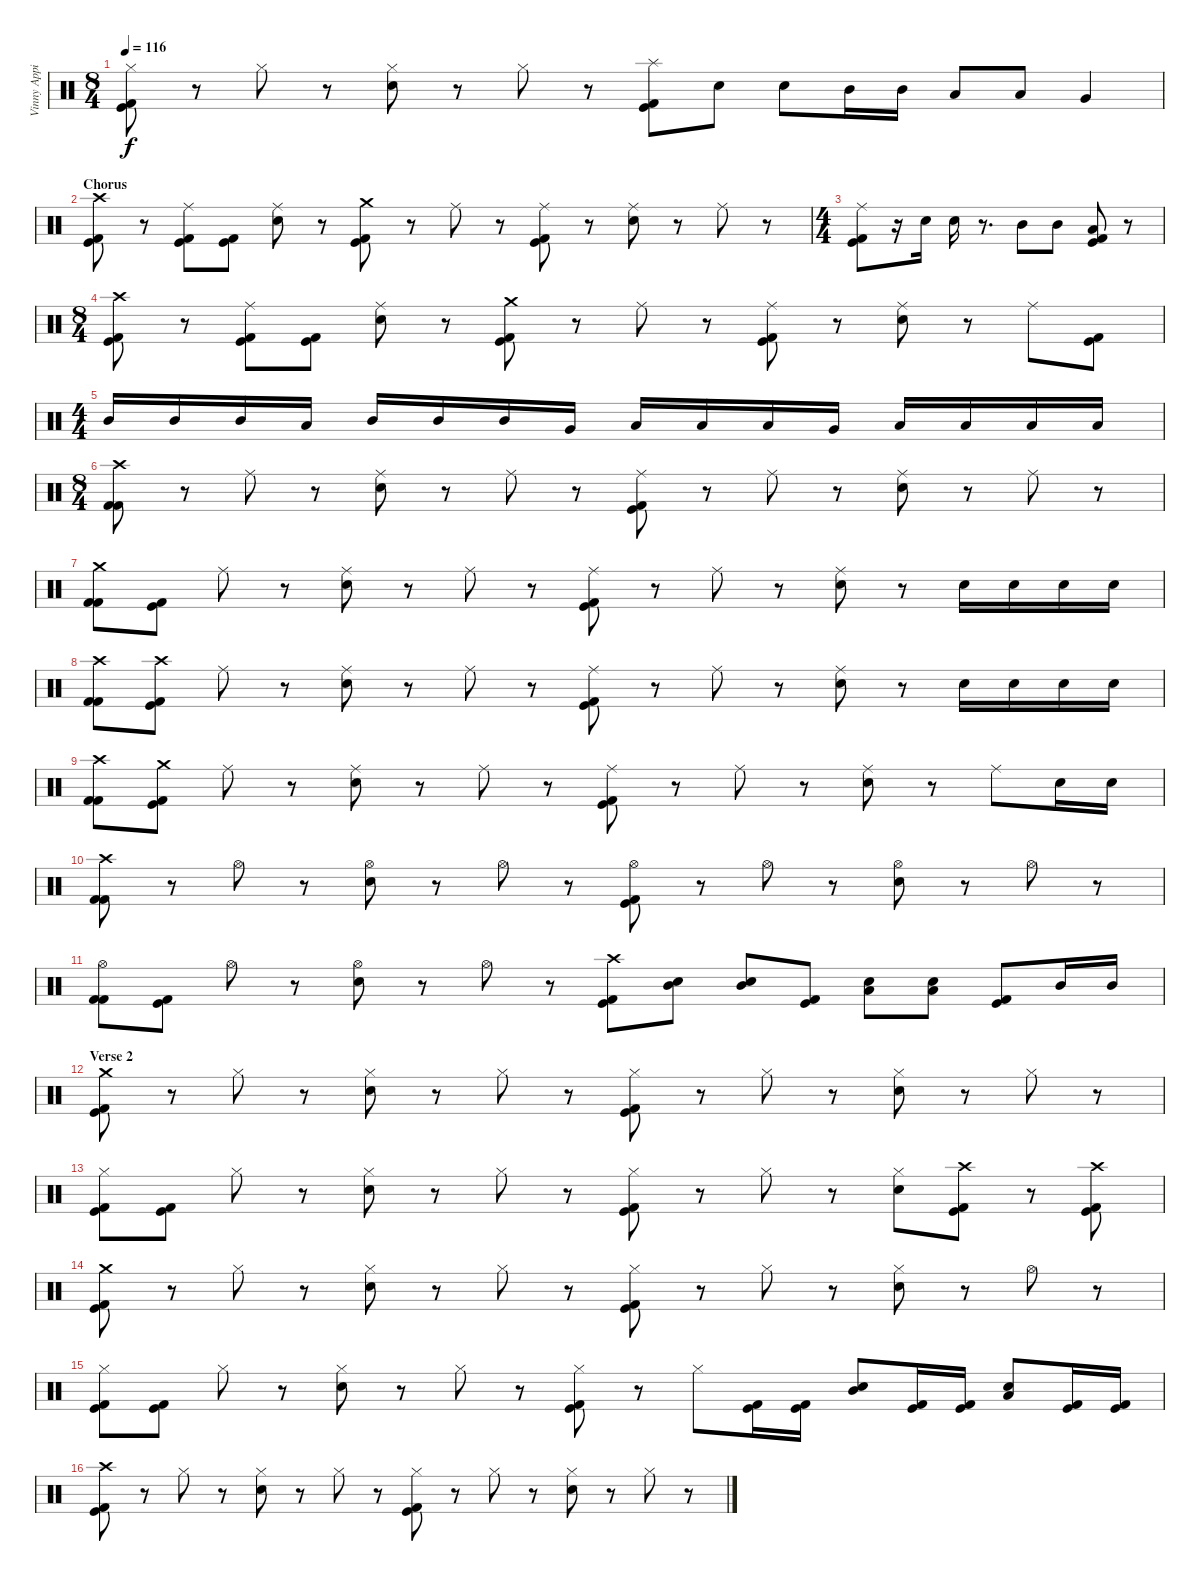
\track ("Vinny Appice" "Vinny Appi") {instrument percussion}
\staff {score}
\articulation defaults
\ts (8 4)
\tempo 116
\clef neutral
\ks c
("Hi-Hat (closed)" "Kick (hit)" "Kick (hit) 2").8{dy f} r.8 "Hi-Hat (closed)".8 r.8 ("Hi-Hat (closed)" "Snare (hit) 2").8 r.8 "Hi-Hat (closed)".8 r.8 ("Splash (hit)" "Kick (hit)" "Kick (hit) 2").8 "Snare (hit) 2".8 "Snare (hit) 2".8 "Mid Tom (hit)".16 "Mid Tom (hit)".16 "Low Tom (hit)".8 "Low Tom (hit)".8 "Very Low Tom (hit)".4 |
\section ("" "Chorus")
("Crash high (hit)" "Kick (hit)" "Kick (hit) 2").8 r.8 ("Ride (middle)" "Kick (hit)" "Kick (hit) 2").8 ("Kick (hit)" "Kick (hit) 2").8 ("Ride (middle)" "Snare (hit) 2").8 r.8 ("Crash medium (hit)" "Kick (hit)" "Kick (hit) 2").8 r.8 "Ride (middle)".8 r.8 ("Ride (middle)" "Kick (hit)" "Kick (hit) 2").8 r.8 ("Ride (middle)" "Snare (hit) 2").8 r.8 "Ride (middle)".8 r.8 |
\ts (4 4)
("Ride (middle)" "Kick (hit)" "Kick (hit) 2").8 r.16 "Snare (hit) 2".16 "Snare (hit) 2".16 r.8{d} "Mid Tom (hit)".8 "Mid Tom (hit)".8 ("Low Tom (hit)" "Kick (hit)" "Kick (hit) 2").8 r.8 |
\ts (8 4)
("Crash high (hit)" "Kick (hit)" "Kick (hit) 2").8 r.8 ("Ride (middle)" "Kick (hit)" "Kick (hit) 2").8 ("Kick (hit)" "Kick (hit) 2").8 ("Ride (middle)" "Snare (hit) 2").8 r.8 ("Crash medium (hit)" "Kick (hit)" "Kick (hit) 2").8 r.8 "Ride (middle)".8 r.8 ("Ride (middle)" "Kick (hit)" "Kick (hit) 2").8 r.8 ("Ride (middle)" "Snare (hit) 2").8 r.8 "Ride (middle)".8 ("Kick (hit)" "Kick (hit) 2").8 |
\ts (4 4)
"Mid Tom (hit)".16 "Mid Tom (hit)".16 "Mid Tom (hit)".16 "Low Tom (hit)".16 "Mid Tom (hit)".16 "Mid Tom (hit)".16 "Mid Tom (hit)".16 "Very Low Tom (hit)".16 "Low Tom (hit)".16 "Low Tom (hit)".16 "Low Tom (hit)".16 "Very Low Tom (hit)".16 "Low Tom (hit)".16 "Low Tom (hit)".16 "Low Tom (hit)".16 "Low Floor Tom (hit)".16 |
\ts (8 4)
("Crash high (hit)" "Kick (hit) 2" "Kick (hit) 2").8 r.8 "Ride (middle)".8 r.8 ("Ride (middle)" "Snare (hit) 2").8 r.8 "Ride (middle)".8 r.8 ("Ride (middle)" "Kick (hit)" "Kick (hit) 2").8 r.8 "Ride (middle)".8 r.8 ("Ride (middle)" "Snare (hit) 2").8 r.8 "Ride (middle)".8 r.8 |
("Crash medium (hit)" "Kick (hit) 2" "Kick (hit) 2").8 ("Kick (hit)" "Kick (hit) 2").8 "Ride (middle)".8 r.8 ("Ride (middle)" "Snare (hit) 2").8 r.8 "Ride (middle)".8 r.8 ("Ride (middle)" "Kick (hit)" "Kick (hit) 2").8 r.8 "Ride (middle)".8 r.8 ("Ride (middle)" "Snare (hit) 2").8 r.8 "Snare (hit) 2".16 "Snare (hit) 2".16 "Snare (hit) 2".16 "Snare (hit) 2".16 |
("Crash high (hit)" "Kick (hit) 2" "Kick (hit) 2").8 ("Crash high (hit)" "Kick (hit)" "Kick (hit) 2").8 "Ride (middle)".8 r.8 ("Ride (middle)" "Snare (hit) 2").8 r.8 "Ride (middle)".8 r.8 ("Ride (middle)" "Kick (hit)" "Kick (hit) 2").8 r.8 "Ride (middle)".8 r.8 ("Ride (middle)" "Snare (hit) 2").8 r.8 "Snare (hit) 2".16 "Snare (hit) 2".16 "Snare (hit) 2".16 "Snare (hit) 2".16 |
("Crash high (hit)" "Kick (hit) 2" "Kick (hit) 2").8 ("Crash medium (hit)" "Kick (hit)" "Kick (hit) 2").8 "Ride (middle)".8 r.8 ("Ride (middle)" "Snare (hit) 2").8 r.8 "Ride (middle)".8 r.8 ("Ride (middle)" "Kick (hit)" "Kick (hit) 2").8 r.8 "Ride (middle)".8 r.8 ("Ride (middle)" "Snare (hit) 2").8 r.8 "Ride (middle)".8 "Snare (hit) 2".16 "Snare (hit) 2".16 |
("Crash high (hit)" "Kick (hit) 2" "Kick (hit) 2").8 r.8 "Hi-Hat (open)".8 r.8 ("Hi-Hat (open)" "Snare (hit) 2").8 r.8 "Hi-Hat (open)".8 r.8 ("Hi-Hat (open)" "Kick (hit)" "Kick (hit) 2").8 r.8 "Hi-Hat (open)".8 r.8 ("Hi-Hat (open)" "Snare (hit) 2").8 r.8 "Hi-Hat (open)".8 r.8 |
("Hi-Hat (open)" "Kick (hit) 2" "Kick (hit) 2").8 ("Kick (hit)" "Kick (hit) 2").8 "Hi-Hat (open)".8 r.8 ("Hi-Hat (open)" "Snare (hit) 2").8 r.8 "Hi-Hat (open)".8 r.8 ("Crash high (hit)" "Kick (hit)" "Kick (hit) 2").8 ("Mid Tom (hit)" "Snare (hit) 2").8 ("Mid Tom (hit)" "Snare (hit) 2").8 ("Kick (hit)" "Kick (hit) 2").8 ("Low Tom (hit)" "Snare (hit) 2").8 ("Low Tom (hit)" "Snare (hit) 2").8 ("Kick (hit)" "Kick (hit) 2").8 "Mid Tom (hit)".16 "Mid Tom (hit)".16 |
\section ("" "Verse 2")
("Crash medium (hit)" "Kick (hit)" "Kick (hit) 2").8 r.8 "Hi-Hat (closed)".8 r.8 ("Hi-Hat (closed)" "Snare (hit) 2").8 r.8 "Hi-Hat (closed)".8 r.8 ("Hi-Hat (closed)" "Kick (hit)" "Kick (hit) 2").8 r.8 "Hi-Hat (closed)".8 r.8 ("Hi-Hat (closed)" "Snare (hit) 2").8 r.8 "Hi-Hat (closed)".8 r.8 |
("Hi-Hat (closed)" "Kick (hit)" "Kick (hit) 2").8 ("Kick (hit)" "Kick (hit) 2").8 "Hi-Hat (closed)".8 r.8 ("Hi-Hat (closed)" "Snare (hit) 2").8 r.8 "Hi-Hat (closed)".8 r.8 ("Hi-Hat (closed)" "Kick (hit)" "Kick (hit) 2").8 r.8 "Hi-Hat (closed)".8 r.8 ("Hi-Hat (closed)" "Snare (hit) 2").8 ("Crash high (hit)" "Kick (hit)" "Kick (hit) 2").8 r.8 ("Crash high (hit)" "Kick (hit)" "Kick (hit) 2").8 |
("Crash medium (hit)" "Kick (hit)" "Kick (hit) 2").8 r.8 "Hi-Hat (closed)".8 r.8 ("Hi-Hat (closed)" "Snare (hit) 2").8 r.8 "Hi-Hat (closed)".8 r.8 ("Hi-Hat (closed)" "Kick (hit)" "Kick (hit) 2").8 r.8 "Hi-Hat (closed)".8 r.8 ("Hi-Hat (closed)" "Snare (hit) 2").8 r.8 "Hi-Hat (open)".8 r.8 |
("Hi-Hat (closed)" "Kick (hit)" "Kick (hit) 2").8 ("Kick (hit)" "Kick (hit) 2").8 "Hi-Hat (closed)".8 r.8 ("Hi-Hat (closed)" "Snare (hit) 2").8 r.8 "Hi-Hat (closed)".8 r.8 ("Hi-Hat (closed)" "Kick (hit)" "Kick (hit) 2").8 r.8 "Hi-Hat (closed)".8 ("Kick (hit)" "Kick (hit) 2").16 ("Kick (hit)" "Kick (hit) 2").16 ("Mid Tom (hit)" "Snare (hit) 2").8 ("Kick (hit)" "Kick (hit) 2").16 ("Kick (hit)" "Kick (hit) 2").16 ("Low Tom (hit)" "Snare (hit) 2").8 ("Kick (hit)" "Kick (hit) 2").16 ("Kick (hit)" "Kick (hit) 2").16 |
("Crash high (hit)" "Kick (hit)" "Kick (hit) 2").8 r.8 "Hi-Hat (closed)".8 r.8 ("Hi-Hat (closed)" "Snare (hit) 2").8 r.8 "Hi-Hat (closed)".8 r.8 ("Hi-Hat (closed)" "Kick (hit)" "Kick (hit) 2").8 r.8 "Hi-Hat (closed)".8 r.8 ("Hi-Hat (closed)" "Snare (hit) 2").8 r.8 "Hi-Hat (closed)".8 r.8
